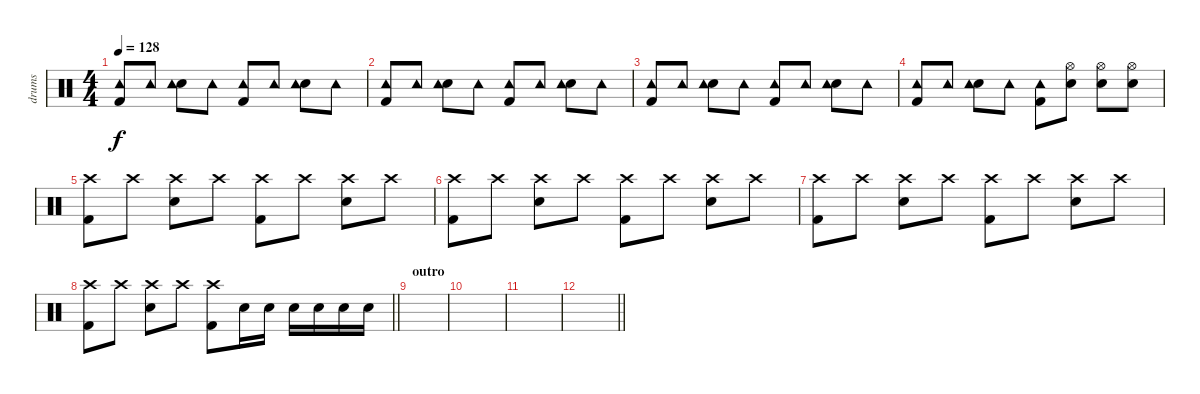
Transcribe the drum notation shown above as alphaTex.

\track ("drums" "drums") {instrument percussion}
\staff {score}
\articulation defaults
\ts (4 4)
\tempo 128
\clef neutral
\ks c
("Kick (hit) 2" "Tambourine (hit)").8{dy f} "Tambourine (hit)".8 ("Electric Snare (hit)" "Tambourine (hit)").8 "Tambourine (hit)".8 ("Kick (hit) 2" "Tambourine (hit)").8 "Tambourine (hit)".8 ("Electric Snare (hit)" "Tambourine (hit)").8 "Tambourine (hit)".8 |
("Kick (hit) 2" "Tambourine (hit)").8 "Tambourine (hit)".8 ("Electric Snare (hit)" "Tambourine (hit)").8 "Tambourine (hit)".8 ("Kick (hit) 2" "Tambourine (hit)").8 "Tambourine (hit)".8 ("Electric Snare (hit)" "Tambourine (hit)").8 "Tambourine (hit)".8 |
("Kick (hit) 2" "Tambourine (hit)").8 "Tambourine (hit)".8 ("Electric Snare (hit)" "Tambourine (hit)").8 "Tambourine (hit)".8 ("Kick (hit) 2" "Tambourine (hit)").8 "Tambourine (hit)".8 ("Electric Snare (hit)" "Tambourine (hit)").8 "Tambourine (hit)".8 |
("Kick (hit) 2" "Tambourine (hit)").8 "Tambourine (hit)".8 ("Electric Snare (hit)" "Tambourine (hit)").8 "Tambourine (hit)".8 ("Kick (hit) 2" "Tambourine (hit)").8 ("Electric Snare (hit)" "Hi-Hat (open)").8 ("Electric Snare (hit)" "Hi-Hat (open)").8 ("Electric Snare (hit)" "Hi-Hat (open)").8 |
("Kick (hit) 2" "Crash high (hit)").8 "Crash high (hit)".8 ("Electric Snare (hit)" "Crash high (hit)").8 "Crash high (hit)".8 ("Kick (hit) 2" "Crash high (hit)").8 "Crash high (hit)".8 ("Electric Snare (hit)" "Crash high (hit)").8 "Crash high (hit)".8 |
("Kick (hit) 2" "Crash high (hit)").8 "Crash high (hit)".8 ("Electric Snare (hit)" "Crash high (hit)").8 "Crash high (hit)".8 ("Kick (hit) 2" "Crash high (hit)").8 "Crash high (hit)".8 ("Electric Snare (hit)" "Crash high (hit)").8 "Crash high (hit)".8 |
("Kick (hit) 2" "Crash high (hit)").8 "Crash high (hit)".8 ("Electric Snare (hit)" "Crash high (hit)").8 "Crash high (hit)".8 ("Kick (hit) 2" "Crash high (hit)").8 "Crash high (hit)".8 ("Electric Snare (hit)" "Crash high (hit)").8 "Crash high (hit)".8 |
\barLineRight lightlight
("Kick (hit) 2" "Crash high (hit)").8 "Crash high (hit)".8 ("Electric Snare (hit)" "Crash high (hit)").8 "Crash high (hit)".8 ("Kick (hit) 2" "Crash high (hit)").8 "Electric Snare (hit)".16 "Electric Snare (hit)".16 "Electric Snare (hit)".16 "Electric Snare (hit)".16 "Electric Snare (hit)".16 "Electric Snare (hit)".16 |
\section ("" "outro")
|
|
|
\barLineRight lightlight
